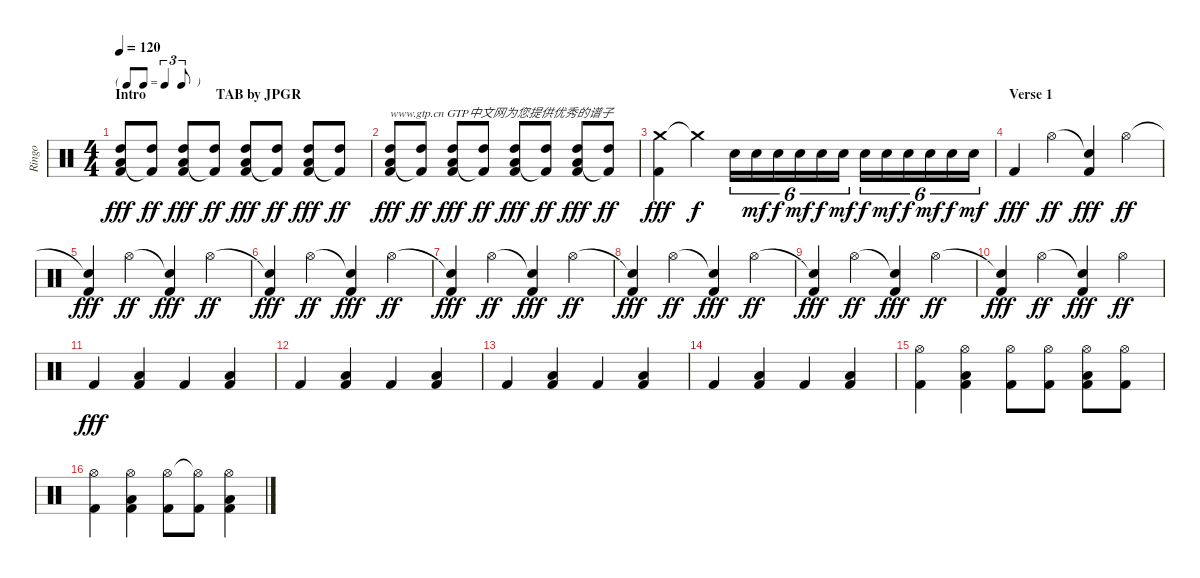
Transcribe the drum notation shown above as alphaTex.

\track ("Ringo" "Ringo") {instrument percussion}
\staff {score}
\articulation defaults
\ts (4 4)
\tf triplet8th
\section ("" "Intro                    TAB by JPGR")
\tempo 120
\clef neutral
\ks c
("High Tom (hit)" "Low Tom (hit)" "Kick (hit) 2").8{dy fff} ("High Tom (hit)" "Kick (hit) 2"{t}).8{dy ff} ("High Tom (hit)" "Low Tom (hit)" "Kick (hit) 2").8{dy fff} ("High Tom (hit)" "Kick (hit) 2"{t}).8{dy ff} ("High Tom (hit)" "Low Tom (hit)" "Kick (hit) 2").8{dy fff} ("High Tom (hit)" "Kick (hit) 2"{t}).8{dy ff} ("High Tom (hit)" "Low Tom (hit)" "Kick (hit) 2").8{dy fff} ("High Tom (hit)" "Kick (hit) 2"{t}).8{dy ff} |
("High Tom (hit)" "Low Tom (hit)" "Kick (hit) 2").8{txt "www.gtp.cn GTP中文网为您提供优秀的谱子" dy fff} ("High Tom (hit)" "Kick (hit) 2"{t}).8{dy ff} ("High Tom (hit)" "Low Tom (hit)" "Kick (hit) 2").8{dy fff} ("High Tom (hit)" "Kick (hit) 2"{t}).8{dy ff} ("High Tom (hit)" "Low Tom (hit)" "Kick (hit) 2").8{dy fff} ("High Tom (hit)" "Kick (hit) 2"{t}).8{dy ff} ("High Tom (hit)" "Low Tom (hit)" "Kick (hit) 2").8{dy fff} ("High Tom (hit)" "Kick (hit) 2"{t}).8{dy ff} |
("Crash medium (hit)" "Kick (hit) 2").4{dy fff} "Crash medium (hit)"{t}.4{dy f} "Snare (hit) 2".16{tu (6 4)} "Snare (hit) 2".16{tu (6 4) dy mf} "Snare (hit) 2".16{tu (6 4) dy f} "Snare (hit) 2".16{tu (6 4) dy mf} "Snare (hit) 2".16{tu (6 4) dy f} "Snare (hit) 2".16{tu (6 4) dy mf} "Snare (hit) 2".16{tu (6 4) dy f} "Snare (hit) 2".16{tu (6 4) dy mf} "Snare (hit) 2".16{tu (6 4) dy f} "Snare (hit) 2".16{tu (6 4) dy mf} "Snare (hit) 2".16{tu (6 4) dy f} "Snare (hit) 2".16{tu (6 4) dy mf} |
\section ("" "Verse 1")
"Kick (hit) 2".4{dy fff} "Hi-Hat (open)".4{dy ff} ("Snare (hit)"{t} "Kick (hit) 2").4{dy fff} "Hi-Hat (open)".4{dy ff} |
("Snare (hit)"{t} "Kick (hit) 2").4{dy fff} "Hi-Hat (open)".4{dy ff} ("Snare (hit)"{t} "Kick (hit) 2").4{dy fff} "Hi-Hat (open)".4{dy ff} |
("Snare (hit)"{t} "Kick (hit) 2").4{dy fff} "Hi-Hat (open)".4{dy ff} ("Snare (hit)"{t} "Kick (hit) 2").4{dy fff} "Hi-Hat (open)".4{dy ff} |
("Snare (hit)"{t} "Kick (hit) 2").4{dy fff} "Hi-Hat (open)".4{dy ff} ("Snare (hit)"{t} "Kick (hit) 2").4{dy fff} "Hi-Hat (open)".4{dy ff} |
("Snare (hit)"{t} "Kick (hit) 2").4{dy fff} "Hi-Hat (open)".4{dy ff} ("Snare (hit)"{t} "Kick (hit) 2").4{dy fff} "Hi-Hat (open)".4{dy ff} |
("Snare (hit)"{t} "Kick (hit) 2").4{dy fff} "Hi-Hat (open)".4{dy ff} ("Snare (hit)"{t} "Kick (hit) 2").4{dy fff} "Hi-Hat (open)".4{dy ff} |
("Snare (hit)"{t} "Kick (hit) 2").4{dy fff} "Hi-Hat (open)".4{dy ff} ("Snare (hit)"{t} "Kick (hit) 2").4{dy fff} "Hi-Hat (open)".4{dy ff} |
"Kick (hit) 2".4{dy fff} ("Low Tom (hit)" "Kick (hit) 2").4 "Kick (hit) 2".4 ("Low Tom (hit)" "Kick (hit) 2").4 |
"Kick (hit) 2".4 ("Low Tom (hit)" "Kick (hit) 2").4 "Kick (hit) 2".4 ("Low Tom (hit)" "Kick (hit) 2").4 |
"Kick (hit) 2".4 ("Low Tom (hit)" "Kick (hit) 2").4 "Kick (hit) 2".4 ("Low Tom (hit)" "Kick (hit) 2").4 |
"Kick (hit) 2".4 ("Low Tom (hit)" "Kick (hit) 2").4 "Kick (hit) 2".4 ("Low Tom (hit)" "Kick (hit) 2").4 |
("Hi-Hat (open)" "Kick (hit) 2").4 ("Hi-Hat (open)" "Low Tom (hit)" "Kick (hit) 2").4 ("Hi-Hat (open)" "Kick (hit) 2").8 ("Hi-Hat (open)" "Kick (hit) 2").8 ("Hi-Hat (open)" "Low Tom (hit)" "Kick (hit) 2").8 ("Hi-Hat (open)" "Kick (hit) 2").8 |
("Hi-Hat (open)" "Kick (hit) 2").4 ("Hi-Hat (open)" "Low Tom (hit)" "Kick (hit) 2").4 ("Hi-Hat (open)" "Kick (hit) 2").8 ("Hi-Hat (open)"{t} "Kick (hit) 2").8 ("Hi-Hat (open)" "Low Tom (hit)" "Kick (hit) 2").4
